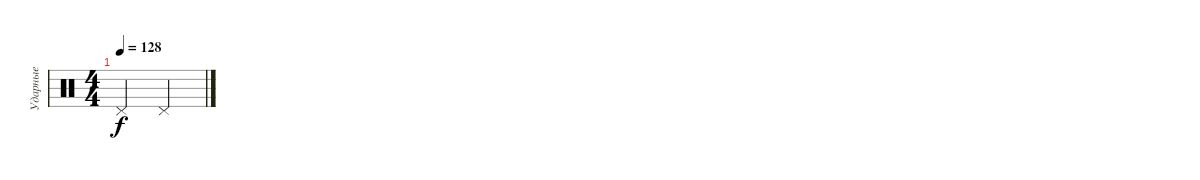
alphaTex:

\track ("Ударные" "Ударные") {instrument percussion}
\staff {score}
\articulation defaults
\ts (4 4)
\tempo 128
\clef neutral
\ks c "Pedal Hi-Hat (hit)".2{dy f} "Pedal Hi-Hat (hit)".2
